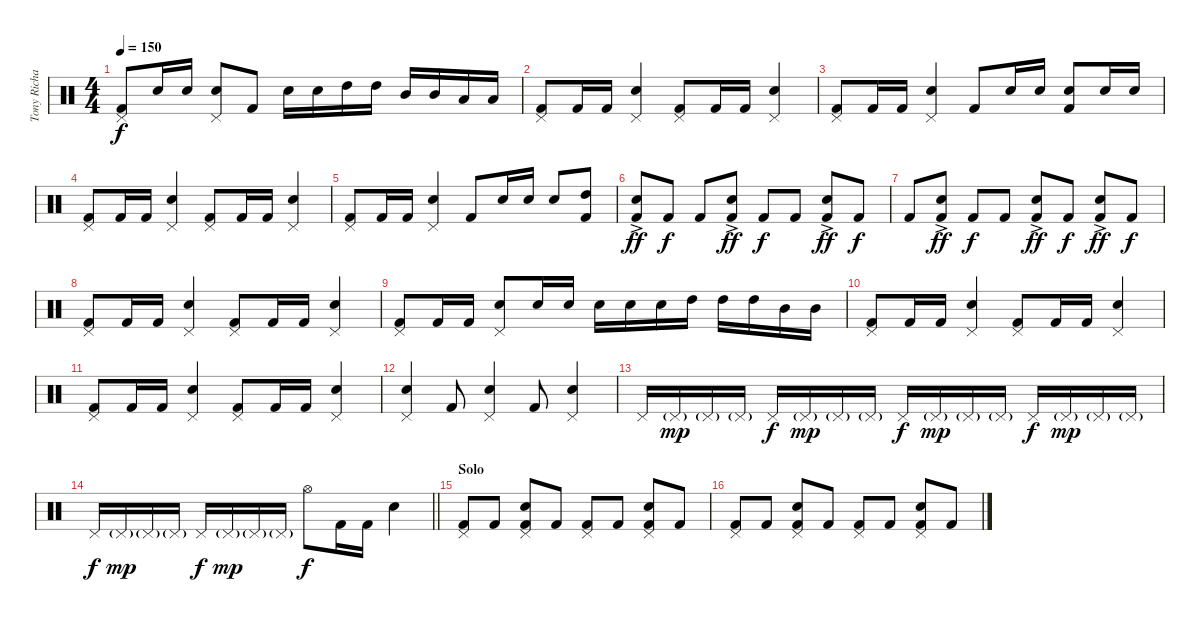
\track ("Tony Richards (drums)" "Tony Richa") {instrument percussion}
\staff {score}
\articulation defaults
\ts (4 4)
\tempo 150
\clef neutral
\ks c
("Pedal Hi-Hat (hit)" "Kick (hit) 2").8{dy f} "Snare (hit) 2".16 "Snare (hit) 2".16 ("Pedal Hi-Hat (hit)" "Snare (hit) 2").8 "Kick (hit) 2".8 "Snare (hit) 2".16 "Snare (hit) 2".16 "High Tom (hit)".16 "High Tom (hit)".16 "Mid Tom (hit)".16 "Mid Tom (hit)".16 "Low Tom (hit)".16 "Low Tom (hit)".16 |
("Pedal Hi-Hat (hit)" "Kick (hit) 2").8 "Kick (hit) 2".16 "Kick (hit) 2".16 ("Pedal Hi-Hat (hit)" "Snare (hit) 2").4 ("Pedal Hi-Hat (hit)" "Kick (hit) 2").8 "Kick (hit) 2".16 "Kick (hit) 2".16 ("Pedal Hi-Hat (hit)" "Snare (hit) 2").4 |
("Pedal Hi-Hat (hit)" "Kick (hit) 2").8 "Kick (hit) 2".16 "Kick (hit) 2".16 ("Pedal Hi-Hat (hit)" "Snare (hit) 2").4 "Kick (hit) 2".8 "Snare (hit) 2".16 "Snare (hit) 2".16 ("Snare (hit) 2" "Kick (hit) 2").8 "Snare (hit) 2".16 "Snare (hit) 2".16 |
("Pedal Hi-Hat (hit)" "Kick (hit) 2").8 "Kick (hit) 2".16 "Kick (hit) 2".16 ("Pedal Hi-Hat (hit)" "Snare (hit) 2").4 ("Pedal Hi-Hat (hit)" "Kick (hit) 2").8 "Kick (hit) 2".16 "Kick (hit) 2".16 ("Pedal Hi-Hat (hit)" "Snare (hit) 2").4 |
("Pedal Hi-Hat (hit)" "Kick (hit) 2").8 "Kick (hit) 2".16 "Kick (hit) 2".16 ("Pedal Hi-Hat (hit)" "Snare (hit) 2").4 "Kick (hit) 2".8 "Snare (hit) 2".16 "Snare (hit) 2".16 "Snare (hit) 2".8 ("High Tom (hit)" "Kick (hit) 2").8 |
("Snare (hit) 2"{ac} "Kick (hit) 2").8{dy ff} "Kick (hit) 2".8{dy f} "Kick (hit) 2".8 ("Snare (hit) 2"{ac} "Kick (hit) 2").8{dy ff} "Kick (hit) 2".8{dy f} "Kick (hit) 2".8 ("Snare (hit) 2"{ac} "Kick (hit) 2").8{dy ff} "Kick (hit) 2".8{dy f} |
"Kick (hit) 2".8 ("Snare (hit) 2"{ac} "Kick (hit) 2").8{dy ff} "Kick (hit) 2".8{dy f} "Kick (hit) 2".8 ("Snare (hit) 2"{ac} "Kick (hit) 2").8{dy ff} "Kick (hit) 2".8{dy f} ("Snare (hit) 2"{ac} "Kick (hit) 2").8{dy ff} "Kick (hit) 2".8{dy f} |
("Pedal Hi-Hat (hit)" "Kick (hit) 2").8 "Kick (hit) 2".16 "Kick (hit) 2".16 ("Pedal Hi-Hat (hit)" "Snare (hit) 2").4 ("Pedal Hi-Hat (hit)" "Kick (hit) 2").8 "Kick (hit) 2".16 "Kick (hit) 2".16 ("Pedal Hi-Hat (hit)" "Snare (hit) 2").4 |
("Pedal Hi-Hat (hit)" "Kick (hit) 2").8 "Kick (hit) 2".16 "Kick (hit) 2".16 ("Pedal Hi-Hat (hit)" "Snare (hit) 2").8 "Snare (hit) 2".16 "Snare (hit) 2".16 "Snare (hit) 2".16 "Snare (hit) 2".16 "Snare (hit) 2".16 "High Tom (hit)".16 "High Tom (hit)".16 "High Tom (hit)".16 "Mid Tom (hit)".16 "Mid Tom (hit)".16 |
("Pedal Hi-Hat (hit)" "Kick (hit) 2").8 "Kick (hit) 2".16 "Kick (hit) 2".16 ("Pedal Hi-Hat (hit)" "Snare (hit) 2").4 ("Pedal Hi-Hat (hit)" "Kick (hit) 2").8 "Kick (hit) 2".16 "Kick (hit) 2".16 ("Pedal Hi-Hat (hit)" "Snare (hit) 2").4 |
("Pedal Hi-Hat (hit)" "Kick (hit) 2").8 "Kick (hit) 2".16 "Kick (hit) 2".16 ("Pedal Hi-Hat (hit)" "Snare (hit) 2").4 ("Pedal Hi-Hat (hit)" "Kick (hit) 2").8 "Kick (hit) 2".16 "Kick (hit) 2".16 ("Pedal Hi-Hat (hit)" "Snare (hit) 2").4 |
("Pedal Hi-Hat (hit)" "Snare (hit) 2").4 "Kick (hit) 2".8 ("Pedal Hi-Hat (hit)" "Snare (hit) 2").4 "Kick (hit) 2".8 ("Pedal Hi-Hat (hit)" "Snare (hit) 2").4 |
"Pedal Hi-Hat (hit)".16 "Pedal Hi-Hat (hit)"{g}.16{dy mp} "Pedal Hi-Hat (hit)"{g}.16 "Pedal Hi-Hat (hit)"{g}.16 "Pedal Hi-Hat (hit)".16{dy f} "Pedal Hi-Hat (hit)"{g}.16{dy mp} "Pedal Hi-Hat (hit)"{g}.16 "Pedal Hi-Hat (hit)"{g}.16 "Pedal Hi-Hat (hit)".16{dy f} "Pedal Hi-Hat (hit)"{g}.16{dy mp} "Pedal Hi-Hat (hit)"{g}.16 "Pedal Hi-Hat (hit)"{g}.16 "Pedal Hi-Hat (hit)".16{dy f} "Pedal Hi-Hat (hit)"{g}.16{dy mp} "Pedal Hi-Hat (hit)"{g}.16 "Pedal Hi-Hat (hit)"{g}.16 |
\barLineRight lightlight "Pedal Hi-Hat (hit)".16{dy f} "Pedal Hi-Hat (hit)"{g}.16{dy mp} "Pedal Hi-Hat (hit)"{g}.16 "Pedal Hi-Hat (hit)"{g}.16 "Pedal Hi-Hat (hit)".16{dy f} "Pedal Hi-Hat (hit)"{g}.16{dy mp} "Pedal Hi-Hat (hit)"{g}.16 "Pedal Hi-Hat (hit)"{g}.16 "Hi-Hat (open)".8{dy f} "Kick (hit) 2".16 "Kick (hit) 2".16 "Snare (hit) 2".4
|
\section ("" "Solo")
("Pedal Hi-Hat (hit)" "Kick (hit) 2").8 "Kick (hit) 2".8 ("Pedal Hi-Hat (hit)" "Snare (hit) 2" "Kick (hit) 2").8 "Kick (hit) 2".8 ("Pedal Hi-Hat (hit)" "Kick (hit) 2").8 "Kick (hit) 2".8 ("Pedal Hi-Hat (hit)" "Snare (hit) 2" "Kick (hit) 2").8 "Kick (hit) 2".8 |
("Pedal Hi-Hat (hit)" "Kick (hit) 2").8 "Kick (hit) 2".8 ("Pedal Hi-Hat (hit)" "Snare (hit) 2" "Kick (hit) 2").8 "Kick (hit) 2".8 ("Pedal Hi-Hat (hit)" "Kick (hit) 2").8 "Kick (hit) 2".8 ("Pedal Hi-Hat (hit)" "Snare (hit) 2" "Kick (hit) 2").8 "Kick (hit) 2".8
